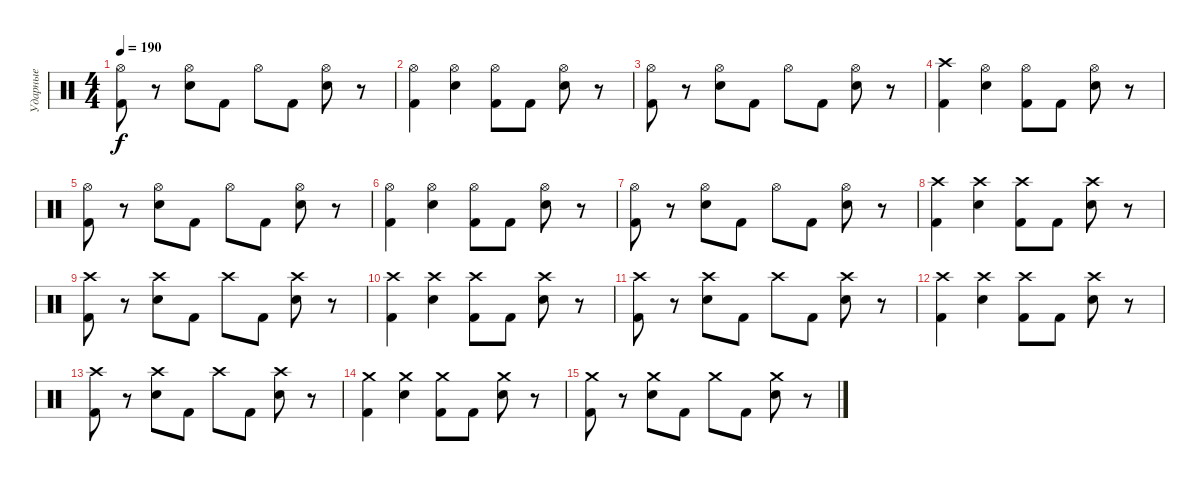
\track ("Ударные" "Ударные") {instrument percussion}
\staff {score}
\articulation defaults
\ts (4 4)
\tempo 190
\clef neutral
\ks c
("Hi-Hat (open)" "Kick (hit) 2").8{dy f} r.8 ("Hi-Hat (open)" "Snare (hit) 2").8 "Kick (hit) 2".8 "Hi-Hat (open)".8 "Kick (hit) 2".8 ("Hi-Hat (open)" "Snare (hit) 2").8 r.8 |
("Hi-Hat (open)" "Kick (hit) 2").4 ("Hi-Hat (open)" "Snare (hit) 2").4 ("Hi-Hat (open)" "Kick (hit) 2").8 "Kick (hit) 2".8 ("Hi-Hat (open)" "Snare (hit) 2").8 r.8 |
("Hi-Hat (open)" "Kick (hit) 2").8 r.8 ("Hi-Hat (open)" "Snare (hit) 2").8 "Kick (hit) 2".8 "Hi-Hat (open)".8 "Kick (hit) 2".8 ("Hi-Hat (open)" "Snare (hit) 2").8 r.8 |
("Crash high (hit)" "Kick (hit) 2").4 ("Hi-Hat (open)" "Snare (hit) 2").4 ("Hi-Hat (open)" "Kick (hit) 2").8 "Kick (hit) 2".8 ("Hi-Hat (open)" "Snare (hit) 2").8 r.8 |
("Hi-Hat (open)" "Kick (hit) 2").8 r.8 ("Hi-Hat (open)" "Snare (hit) 2").8 "Kick (hit) 2".8 "Hi-Hat (open)".8 "Kick (hit) 2".8 ("Hi-Hat (open)" "Snare (hit) 2").8 r.8 |
("Hi-Hat (open)" "Kick (hit) 2").4 ("Hi-Hat (open)" "Snare (hit) 2").4 ("Hi-Hat (open)" "Kick (hit) 2").8 "Kick (hit) 2".8 ("Hi-Hat (open)" "Snare (hit) 2").8 r.8 |
("Hi-Hat (open)" "Kick (hit) 2").8 r.8 ("Hi-Hat (open)" "Snare (hit) 2").8 "Kick (hit) 2".8 "Hi-Hat (open)".8 "Kick (hit) 2".8 ("Hi-Hat (open)" "Snare (hit) 2").8 r.8 |
("Crash high (hit)" "Kick (hit) 2").4 ("Crash high (hit)" "Snare (hit) 2").4 ("Crash high (hit)" "Kick (hit) 2").8 "Kick (hit) 2".8 ("Crash high (hit)" "Snare (hit) 2").8 r.8 |
("Crash high (hit)" "Kick (hit) 2").8 r.8 ("Crash high (hit)" "Snare (hit) 2").8 "Kick (hit) 2".8 "Crash high (hit)".8 "Kick (hit) 2".8 ("Crash high (hit)" "Snare (hit) 2").8 r.8 |
("Crash high (hit)" "Kick (hit) 2").4 ("Crash high (hit)" "Snare (hit) 2").4 ("Crash high (hit)" "Kick (hit) 2").8 "Kick (hit) 2".8 ("Crash high (hit)" "Snare (hit) 2").8 r.8 |
("Crash high (hit)" "Kick (hit) 2").8 r.8 ("Crash high (hit)" "Snare (hit) 2").8 "Kick (hit) 2".8 "Crash high (hit)".8 "Kick (hit) 2".8 ("Crash high (hit)" "Snare (hit) 2").8 r.8 |
("Crash high (hit)" "Kick (hit) 2").4 ("Crash high (hit)" "Snare (hit) 2").4 ("Crash high (hit)" "Kick (hit) 2").8 "Kick (hit) 2".8 ("Crash high (hit)" "Snare (hit) 2").8 r.8 |
("Crash high (hit)" "Kick (hit) 2").8 r.8 ("Crash high (hit)" "Snare (hit) 2").8 "Kick (hit) 2".8 "Crash high (hit)".8 "Kick (hit) 2".8 ("Crash high (hit)" "Snare (hit) 2").8 r.8 |
("Crash medium (hit)" "Kick (hit) 2").4 ("Crash medium (hit)" "Snare (hit) 2").4 ("Crash medium (hit)" "Kick (hit) 2").8 "Kick (hit) 2".8 ("Crash medium (hit)" "Snare (hit) 2").8 r.8 |
("Crash medium (hit)" "Kick (hit) 2").8 r.8 ("Crash medium (hit)" "Snare (hit) 2").8 "Kick (hit) 2".8 "Crash medium (hit)".8 "Kick (hit) 2".8 ("Crash medium (hit)" "Snare (hit) 2").8 r.8
